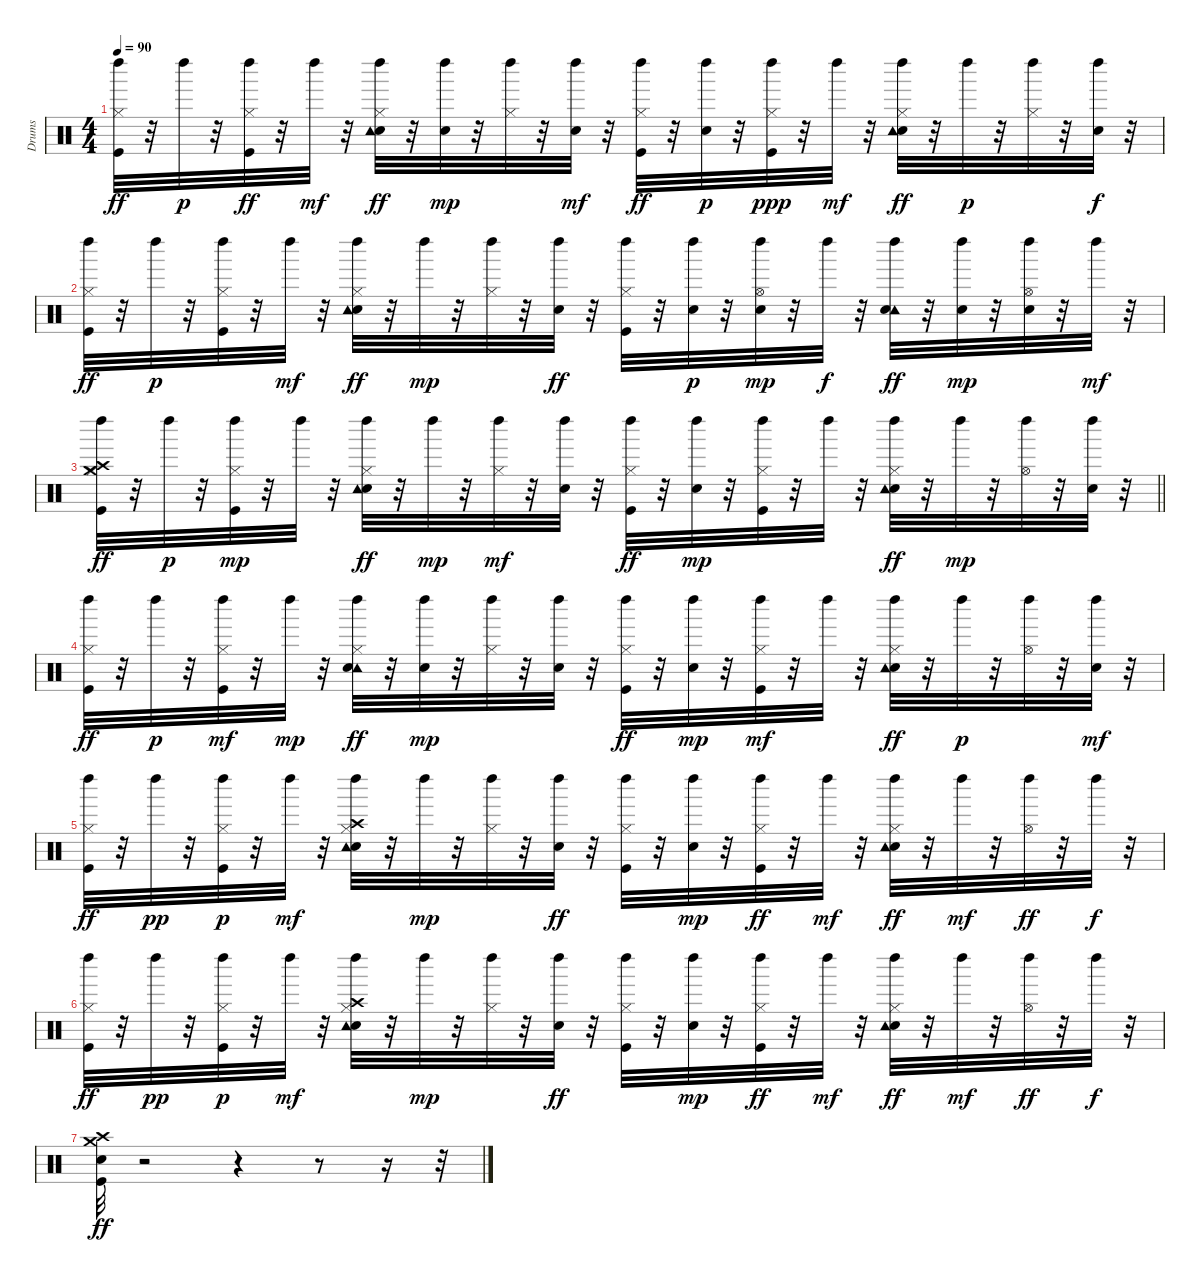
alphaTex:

\track ("Drums" "Drums") {instrument percussion}
\staff {score}
\articulation defaults
\ts (4 4)
\tempo 90
\clef neutral
\ks c
("Hi-Hat (closed)" "Kick (hit)" "Left Maraca (hit)").32{dy ff} r.32 "Left Maraca (hit)".32{dy p} r.32 ("Hi-Hat (closed)" "Left Maraca (hit)" "Kick (hit)").32{dy ff} r.32 "Left Maraca (hit)".32{dy mf} r.32 ("Electric Snare (hit)" "Tambourine (hit)" "Left Maraca (hit)" "Hi-Hat (closed)").32{dy ff} r.32 ("Left Maraca (hit)" "Electric Snare (hit)").32{dy mp} r.32 ("Left Maraca (hit)" "Hi-Hat (closed)").32 r.32 ("Electric Snare (hit)" "Left Maraca (hit)").32{dy mf} r.32 ("Kick (hit)" "Left Maraca (hit)" "Hi-Hat (closed)").32{dy ff} r.32 ("Electric Snare (hit)" "Left Maraca (hit)").32{dy p} r.32 ("Hi-Hat (closed)" "Kick (hit)" "Left Maraca (hit)").32{dy ppp} r.32 "Left Maraca (hit)".32{dy mf} r.32 ("Electric Snare (hit)" "Tambourine (hit)" "Left Maraca (hit)" "Hi-Hat (closed)").32{dy ff} r.32 "Left Maraca (hit)".32{dy p} r.32 ("Left Maraca (hit)" "Hi-Hat (closed)").32 r.32 ("Electric Snare (hit)" "Left Maraca (hit)").32{dy f} r.32 |
("Kick (hit)" "Left Maraca (hit)" "Hi-Hat (closed)").32{dy ff} r.32 "Left Maraca (hit)".32{dy p} r.32 ("Hi-Hat (closed)" "Kick (hit)" "Left Maraca (hit)").32 r.32 "Left Maraca (hit)".32{dy mf} r.32 ("Electric Snare (hit)" "Tambourine (hit)" "Hi-Hat (closed)" "Left Maraca (hit)").32{dy ff} r.32 "Left Maraca (hit)".32{dy mp} r.32 ("Hi-Hat (closed)" "Left Maraca (hit)").32 r.32 ("Left Maraca (hit)" "Electric Snare (hit)").32{dy ff} r.32 ("Kick (hit)" "Hi-Hat (closed)" "Left Maraca (hit)").32 r.32 ("Electric Snare (hit)" "Left Maraca (hit)").32{dy p} r.32 ("Hi-Hat (open)" "Electric Snare (hit)" "Left Maraca (hit)").32{dy mp} r.32 "Left Maraca (hit)".32{dy f} r.32 ("Tambourine (hit)" "Left Maraca (hit)" "Electric Snare (hit)").32{dy ff} r.32 ("Electric Snare (hit)" "Left Maraca (hit)").32{dy mp} r.32 ("Hi-Hat (open)" "Electric Snare (hit)" "Left Maraca (hit)").32 r.32 "Left Maraca (hit)".32{dy mf} r.32 |
\barLineRight lightlight
("Hi-Hat (closed)" "Crash medium (hit)" "Crash high (hit)" "Kick (hit)" "Left Maraca (hit)").32{dy ff} r.32 "Left Maraca (hit)".32{dy p} r.32 ("Hi-Hat (closed)" "Kick (hit)" "Left Maraca (hit)").32{dy mp} r.32 "Left Maraca (hit)".32 r.32 ("Hi-Hat (closed)" "Electric Snare (hit)" "Tambourine (hit)" "Left Maraca (hit)").32{dy ff} r.32 "Left Maraca (hit)".32{dy mp} r.32 ("Hi-Hat (closed)" "Left Maraca (hit)").32{dy mf} r.32 ("Electric Snare (hit)" "Left Maraca (hit)").32 r.32 ("Kick (hit)" "Hi-Hat (closed)" "Left Maraca (hit)").32{dy ff} r.32 ("Electric Snare (hit)" "Left Maraca (hit)").32{dy mp} r.32 ("Hi-Hat (closed)" "Kick (hit)" "Left Maraca (hit)").32 r.32 "Left Maraca (hit)".32 r.32 ("Electric Snare (hit)" "Left Maraca (hit)" "Hi-Hat (closed)" "Tambourine (hit)").32{dy ff} r.32 "Left Maraca (hit)".32{dy mp} r.32 ("Hi-Hat (open)" "Left Maraca (hit)").32 r.32 ("Electric Snare (hit)" "Left Maraca (hit)").32 r.32 |
("Hi-Hat (closed)" "Kick (hit)" "Left Maraca (hit)").32{dy ff} r.32 "Left Maraca (hit)".32{dy p} r.32 ("Hi-Hat (closed)" "Kick (hit)" "Left Maraca (hit)").32{dy mf} r.32 "Left Maraca (hit)".32{dy mp} r.32 ("Hi-Hat (closed)" "Tambourine (hit)" "Electric Snare (hit)" "Left Maraca (hit)").32{dy ff} r.32 ("Electric Snare (hit)" "Left Maraca (hit)").32{dy mp} r.32 ("Hi-Hat (closed)" "Left Maraca (hit)").32 r.32 ("Electric Snare (hit)" "Left Maraca (hit)").32 r.32 ("Kick (hit)" "Left Maraca (hit)" "Hi-Hat (closed)").32{dy ff} r.32 ("Electric Snare (hit)" "Left Maraca (hit)").32{dy mp} r.32 ("Kick (hit)" "Left Maraca (hit)" "Hi-Hat (closed)").32{dy mf} r.32 "Left Maraca (hit)".32 r.32 ("Electric Snare (hit)" "Tambourine (hit)" "Left Maraca (hit)" "Hi-Hat (closed)").32{dy ff} r.32 "Left Maraca (hit)".32{dy p} r.32 ("Hi-Hat (open)" "Left Maraca (hit)").32 r.32 ("Electric Snare (hit)" "Left Maraca (hit)").32{dy mf} r.32 |
("Left Maraca (hit)" "Hi-Hat (closed)" "Kick (hit)").32{dy ff} r.32 "Left Maraca (hit)".32{dy pp} r.32 ("Hi-Hat (closed)" "Kick (hit)" "Left Maraca (hit)").32{dy p} r.32 "Left Maraca (hit)".32{dy mf} r.32 ("Hi-Hat (closed)" "Electric Snare (hit)" "Left Maraca (hit)" "Crash high (hit)" "Tambourine (hit)").32 r.32 "Left Maraca (hit)".32{dy mp} r.32 ("Hi-Hat (closed)" "Left Maraca (hit)").32 r.32 ("Electric Snare (hit)" "Left Maraca (hit)").32{dy ff} r.32 ("Hi-Hat (closed)" "Kick (hit)" "Left Maraca (hit)").32 r.32 ("Electric Snare (hit)" "Left Maraca (hit)").32{dy mp} r.32 ("Hi-Hat (closed)" "Left Maraca (hit)" "Kick (hit)").32{dy ff} r.32 "Left Maraca (hit)".32{dy mf} r.32 ("Hi-Hat (closed)" "Electric Snare (hit)" "Tambourine (hit)" "Left Maraca (hit)").32{dy ff} r.32 "Left Maraca (hit)".32{dy mf} r.32 ("Hi-Hat (open)" "Left Maraca (hit)").32{dy ff} r.32 "Left Maraca (hit)".32{dy f} r.32 |
("Left Maraca (hit)" "Hi-Hat (closed)" "Kick (hit)").32{dy ff} r.32 "Left Maraca (hit)".32{dy pp} r.32 ("Hi-Hat (closed)" "Kick (hit)" "Left Maraca (hit)").32{dy p} r.32 "Left Maraca (hit)".32{dy mf} r.32 ("Hi-Hat (closed)" "Electric Snare (hit)" "Left Maraca (hit)" "Crash high (hit)" "Tambourine (hit)").32 r.32 "Left Maraca (hit)".32{dy mp} r.32 ("Hi-Hat (closed)" "Left Maraca (hit)").32 r.32 ("Electric Snare (hit)" "Left Maraca (hit)").32{dy ff} r.32 ("Hi-Hat (closed)" "Kick (hit)" "Left Maraca (hit)").32 r.32 ("Electric Snare (hit)" "Left Maraca (hit)").32{dy mp} r.32 ("Hi-Hat (closed)" "Left Maraca (hit)" "Kick (hit)").32{dy ff} r.32 "Left Maraca (hit)".32{dy mf} r.32 ("Hi-Hat (closed)" "Electric Snare (hit)" "Tambourine (hit)" "Left Maraca (hit)").32{dy ff} r.32 "Left Maraca (hit)".32{dy mf} r.32 ("Hi-Hat (open)" "Left Maraca (hit)").32{dy ff} r.32 "Left Maraca (hit)".32{dy f} r.32 |
("Crash high (hit)" "Crash medium (hit)" "Electric Snare (hit)" "Kick (hit)").32{dy ff} r.2 r.4 r.8 r.16 r.32
